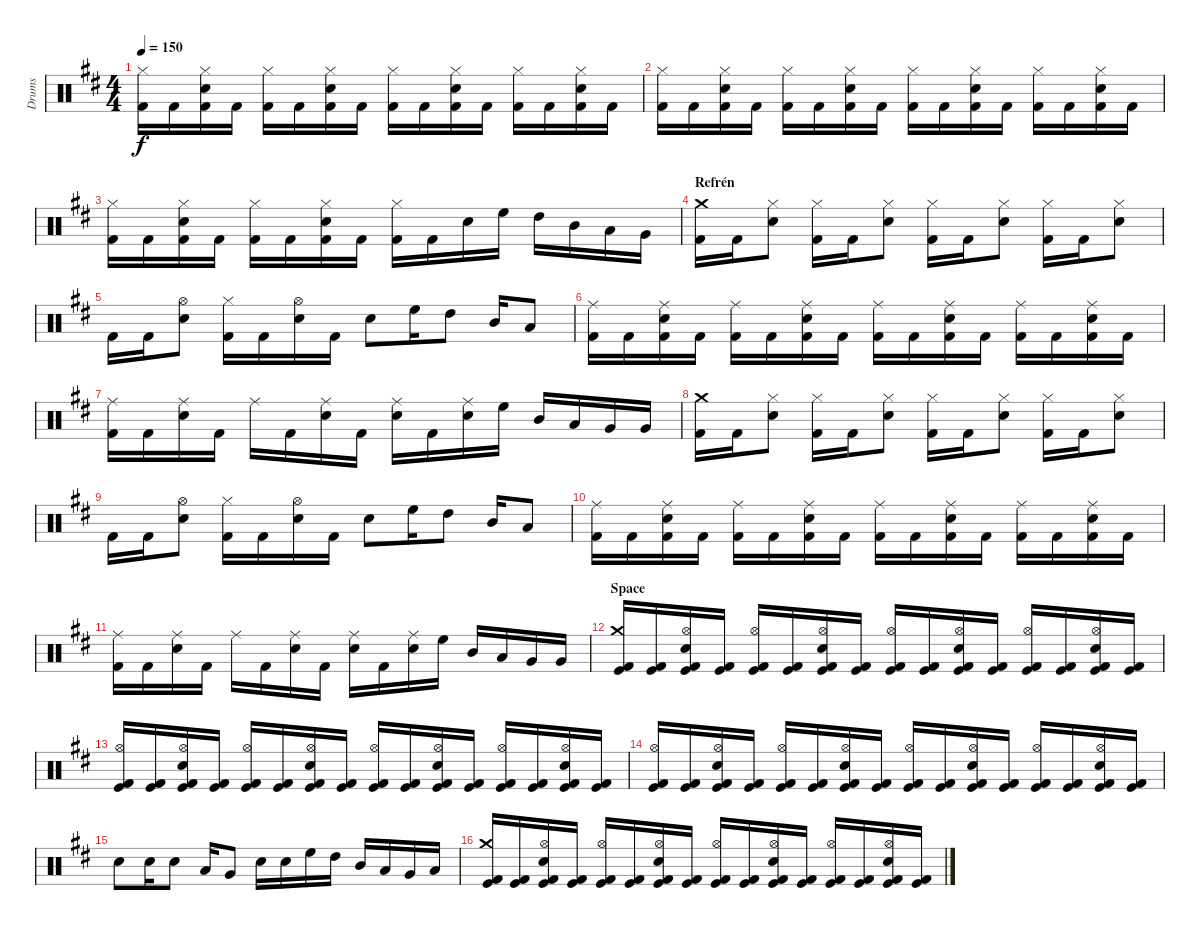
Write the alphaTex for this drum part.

\track ("Drums" "Drums") {instrument percussion}
\staff {score}
\articulation defaults
\ts (4 4)
\tempo 150
\clef neutral
\ks d
("Hi-Hat (closed)" "Kick (hit) 2").16{dy f} "Kick (hit) 2".16 ("Hi-Hat (closed)" "Snare (hit) 2" "Kick (hit) 2").16 "Kick (hit) 2".16 ("Hi-Hat (closed)" "Kick (hit) 2").16 "Kick (hit) 2".16 ("Hi-Hat (closed)" "Snare (hit) 2" "Kick (hit) 2").16 "Kick (hit) 2".16 ("Hi-Hat (closed)" "Kick (hit) 2").16 "Kick (hit) 2".16 ("Hi-Hat (closed)" "Snare (hit) 2" "Kick (hit) 2").16 "Kick (hit) 2".16 ("Hi-Hat (closed)" "Kick (hit) 2").16 "Kick (hit) 2".16 ("Hi-Hat (closed)" "Snare (hit) 2" "Kick (hit) 2").16 "Kick (hit) 2".16 |
("Hi-Hat (closed)" "Kick (hit) 2").16 "Kick (hit) 2".16 ("Hi-Hat (closed)" "Snare (hit) 2" "Kick (hit) 2").16 "Kick (hit) 2".16 ("Hi-Hat (closed)" "Kick (hit) 2").16 "Kick (hit) 2".16 ("Hi-Hat (closed)" "Snare (hit) 2" "Kick (hit) 2").16 "Kick (hit) 2".16 ("Hi-Hat (closed)" "Kick (hit) 2").16 "Kick (hit) 2".16 ("Hi-Hat (closed)" "Snare (hit) 2" "Kick (hit) 2").16 "Kick (hit) 2".16 ("Hi-Hat (closed)" "Kick (hit) 2").16 "Kick (hit) 2".16 ("Hi-Hat (closed)" "Snare (hit) 2" "Kick (hit) 2").16 "Kick (hit) 2".16 |
("Hi-Hat (closed)" "Kick (hit) 2").16 "Kick (hit) 2".16 ("Hi-Hat (closed)" "Snare (hit) 2" "Kick (hit) 2").16 "Kick (hit) 2".16 ("Hi-Hat (closed)" "Kick (hit) 2").16 "Kick (hit) 2".16 ("Hi-Hat (closed)" "Snare (hit) 2" "Kick (hit) 2").16 "Kick (hit) 2".16 ("Hi-Hat (closed)" "Kick (hit) 2").16 "Kick (hit) 2".16 "Snare (hit) 2".16 "High Floor Tom (hit)".16 "High Tom (hit)".16 "Mid Tom (hit)".16 "Low Tom (hit)".16 "Very Low Tom (hit)".16 |
\section ("" "Refrén")
("Crash medium (hit)" "Kick (hit) 2").16 "Kick (hit) 2".16 ("Hi-Hat (closed)" "Snare (hit) 2").8 ("Hi-Hat (closed)" "Kick (hit) 2").16 "Kick (hit) 2".16 ("Hi-Hat (closed)" "Snare (hit) 2").8 ("Hi-Hat (closed)" "Kick (hit) 2").16 "Kick (hit) 2".16 ("Hi-Hat (closed)" "Snare (hit) 2").8 ("Hi-Hat (closed)" "Kick (hit) 2").16 "Kick (hit) 2".16 ("Hi-Hat (closed)" "Snare (hit) 2").8 |
"Kick (hit) 2".16 "Kick (hit) 2".16 ("Hi-Hat (open)" "Snare (hit) 2").8 ("Hi-Hat (closed)" "Kick (hit) 2").16 "Kick (hit) 2".16 ("Hi-Hat (open)" "Snare (hit) 2").16 "Kick (hit) 2".16 "Snare (hit) 2".8 "High Floor Tom (hit)".16 "High Tom (hit)".8 "Mid Tom (hit)".16 "Low Tom (hit)".8 |
("Ride (middle)" "Kick (hit) 2").16 "Kick (hit) 2".16 ("Ride (middle)" "Snare (hit) 2" "Kick (hit) 2").16 "Kick (hit) 2".16 ("Ride (middle)" "Kick (hit) 2").16 "Kick (hit) 2".16 ("Ride (middle)" "Snare (hit) 2" "Kick (hit) 2").16 "Kick (hit) 2".16 ("Ride (middle)" "Kick (hit) 2").16 "Kick (hit) 2".16 ("Ride (middle)" "Snare (hit) 2" "Kick (hit) 2").16 "Kick (hit) 2".16 ("Ride (middle)" "Kick (hit) 2").16 "Kick (hit) 2".16 ("Ride (middle)" "Snare (hit) 2" "Kick (hit) 2").16 "Kick (hit) 2".16 |
("Ride (middle)" "Kick (hit) 2").16 "Kick (hit) 2".16 ("Ride (middle)" "Snare (hit) 2").16 "Kick (hit) 2".16 "Ride (middle)".16 "Kick (hit) 2".16 ("Ride (middle)" "Snare (hit) 2").16 "Kick (hit) 2".16 ("Ride (middle)" "Snare (hit) 2").16 "Kick (hit) 2".16 ("Ride (middle)" "Snare (hit) 2").16 "High Floor Tom (hit)".16 "Mid Tom (hit)".16 "Low Tom (hit)".16 "Very Low Tom (hit)".16 "Very Low Tom (hit)".16 |
("Crash medium (hit)" "Kick (hit) 2").16 "Kick (hit) 2".16 ("Hi-Hat (closed)" "Snare (hit) 2").8 ("Hi-Hat (closed)" "Kick (hit) 2").16 "Kick (hit) 2".16 ("Hi-Hat (closed)" "Snare (hit) 2").8 ("Hi-Hat (closed)" "Kick (hit) 2").16 "Kick (hit) 2".16 ("Hi-Hat (closed)" "Snare (hit) 2").8 ("Hi-Hat (closed)" "Kick (hit) 2").16 "Kick (hit) 2".16 ("Hi-Hat (closed)" "Snare (hit) 2").8 |
"Kick (hit) 2".16 "Kick (hit) 2".16 ("Hi-Hat (open)" "Snare (hit) 2").8 ("Hi-Hat (closed)" "Kick (hit) 2").16 "Kick (hit) 2".16 ("Hi-Hat (open)" "Snare (hit) 2").16 "Kick (hit) 2".16 "Snare (hit) 2".8 "High Floor Tom (hit)".16 "High Tom (hit)".8 "Mid Tom (hit)".16 "Low Tom (hit)".8 |
("Ride (middle)" "Kick (hit) 2").16 "Kick (hit) 2".16 ("Ride (middle)" "Snare (hit) 2" "Kick (hit) 2").16 "Kick (hit) 2".16 ("Ride (middle)" "Kick (hit) 2").16 "Kick (hit) 2".16 ("Ride (middle)" "Snare (hit) 2" "Kick (hit) 2").16 "Kick (hit) 2".16 ("Ride (middle)" "Kick (hit) 2").16 "Kick (hit) 2".16 ("Ride (middle)" "Snare (hit) 2" "Kick (hit) 2").16 "Kick (hit) 2".16 ("Ride (middle)" "Kick (hit) 2").16 "Kick (hit) 2".16 ("Ride (middle)" "Snare (hit) 2" "Kick (hit) 2").16 "Kick (hit) 2".16 |
("Ride (middle)" "Kick (hit) 2").16 "Kick (hit) 2".16 ("Ride (middle)" "Snare (hit) 2").16 "Kick (hit) 2".16 "Ride (middle)".16 "Kick (hit) 2".16 ("Ride (middle)" "Snare (hit) 2").16 "Kick (hit) 2".16 ("Ride (middle)" "Snare (hit) 2").16 "Kick (hit) 2".16 ("Ride (middle)" "Snare (hit) 2").16 "High Floor Tom (hit)".16 "Mid Tom (hit)".16 "Low Tom (hit)".16 "Very Low Tom (hit)".16 "Very Low Tom (hit)".16 |
\section ("" "Space")
("Crash medium (hit)" "Kick (hit) 2" "Kick (hit)").16 ("Kick (hit) 2" "Kick (hit)").16 ("Hi-Hat (open)" "Snare (hit) 2" "Kick (hit) 2" "Kick (hit)").16 ("Kick (hit) 2" "Kick (hit)").16 ("Hi-Hat (open)" "Kick (hit) 2" "Kick (hit)").16 ("Kick (hit) 2" "Kick (hit)").16 ("Hi-Hat (open)" "Snare (hit) 2" "Kick (hit) 2" "Kick (hit)").16 ("Kick (hit) 2" "Kick (hit)").16 ("Hi-Hat (open)" "Kick (hit) 2" "Kick (hit)").16 ("Kick (hit) 2" "Kick (hit)").16 ("Hi-Hat (open)" "Snare (hit) 2" "Kick (hit) 2" "Kick (hit)").16 ("Kick (hit) 2" "Kick (hit)").16 ("Hi-Hat (open)" "Kick (hit) 2" "Kick (hit)").16 ("Kick (hit) 2" "Kick (hit)").16 ("Hi-Hat (open)" "Snare (hit) 2" "Kick (hit) 2" "Kick (hit)").16 ("Kick (hit) 2" "Kick (hit)").16 |
("Hi-Hat (open)" "Kick (hit) 2" "Kick (hit)").16 ("Kick (hit) 2" "Kick (hit)").16 ("Hi-Hat (open)" "Snare (hit) 2" "Kick (hit) 2" "Kick (hit)").16 ("Kick (hit) 2" "Kick (hit)").16 ("Hi-Hat (open)" "Kick (hit) 2" "Kick (hit)").16 ("Kick (hit) 2" "Kick (hit)").16 ("Hi-Hat (open)" "Snare (hit) 2" "Kick (hit) 2" "Kick (hit)").16 ("Kick (hit) 2" "Kick (hit)").16 ("Hi-Hat (open)" "Kick (hit) 2" "Kick (hit)").16 ("Kick (hit) 2" "Kick (hit)").16 ("Hi-Hat (open)" "Snare (hit) 2" "Kick (hit) 2" "Kick (hit)").16 ("Kick (hit) 2" "Kick (hit)").16 ("Hi-Hat (open)" "Kick (hit) 2" "Kick (hit)").16 ("Kick (hit) 2" "Kick (hit)").16 ("Hi-Hat (open)" "Snare (hit) 2" "Kick (hit) 2" "Kick (hit)").16 ("Kick (hit) 2" "Kick (hit)").16 |
("Hi-Hat (open)" "Kick (hit) 2" "Kick (hit)").16 ("Kick (hit) 2" "Kick (hit)").16 ("Hi-Hat (open)" "Snare (hit) 2" "Kick (hit) 2" "Kick (hit)").16 ("Kick (hit) 2" "Kick (hit)").16 ("Hi-Hat (open)" "Kick (hit) 2" "Kick (hit)").16 ("Kick (hit) 2" "Kick (hit)").16 ("Hi-Hat (open)" "Snare (hit) 2" "Kick (hit) 2" "Kick (hit)").16 ("Kick (hit) 2" "Kick (hit)").16 ("Hi-Hat (open)" "Kick (hit) 2" "Kick (hit)").16 ("Kick (hit) 2" "Kick (hit)").16 ("Hi-Hat (open)" "Snare (hit) 2" "Kick (hit) 2" "Kick (hit)").16 ("Kick (hit) 2" "Kick (hit)").16 ("Hi-Hat (open)" "Kick (hit) 2" "Kick (hit)").16 ("Kick (hit) 2" "Kick (hit)").16 ("Hi-Hat (open)" "Snare (hit) 2" "Kick (hit) 2" "Kick (hit)").16 ("Kick (hit) 2" "Kick (hit)").16 |
"Snare (hit) 2".8 "Snare (hit) 2".16 "Snare (hit) 2".8 "Low Tom (hit)".16 "Very Low Tom (hit)".8 "Snare (hit) 2".16 "Snare (hit) 2".16 "High Floor Tom (hit)".16 "High Tom (hit)".16 "Mid Tom (hit)".16 "Low Tom (hit)".16 "Very Low Tom (hit)".16 "Low Floor Tom (hit)".16 |
("Crash medium (hit)" "Kick (hit) 2" "Kick (hit)").16 ("Kick (hit) 2" "Kick (hit)").16 ("Hi-Hat (open)" "Snare (hit) 2" "Kick (hit) 2" "Kick (hit)").16 ("Kick (hit) 2" "Kick (hit)").16 ("Hi-Hat (open)" "Kick (hit) 2" "Kick (hit)").16 ("Kick (hit) 2" "Kick (hit)").16 ("Hi-Hat (open)" "Snare (hit) 2" "Kick (hit) 2" "Kick (hit)").16 ("Kick (hit) 2" "Kick (hit)").16 ("Hi-Hat (open)" "Kick (hit) 2" "Kick (hit)").16 ("Kick (hit) 2" "Kick (hit)").16 ("Hi-Hat (open)" "Snare (hit) 2" "Kick (hit) 2" "Kick (hit)").16 ("Kick (hit) 2" "Kick (hit)").16 ("Hi-Hat (open)" "Kick (hit) 2" "Kick (hit)").16 ("Kick (hit) 2" "Kick (hit)").16 ("Hi-Hat (open)" "Snare (hit) 2" "Kick (hit) 2" "Kick (hit)").16 ("Kick (hit) 2" "Kick (hit)").16
